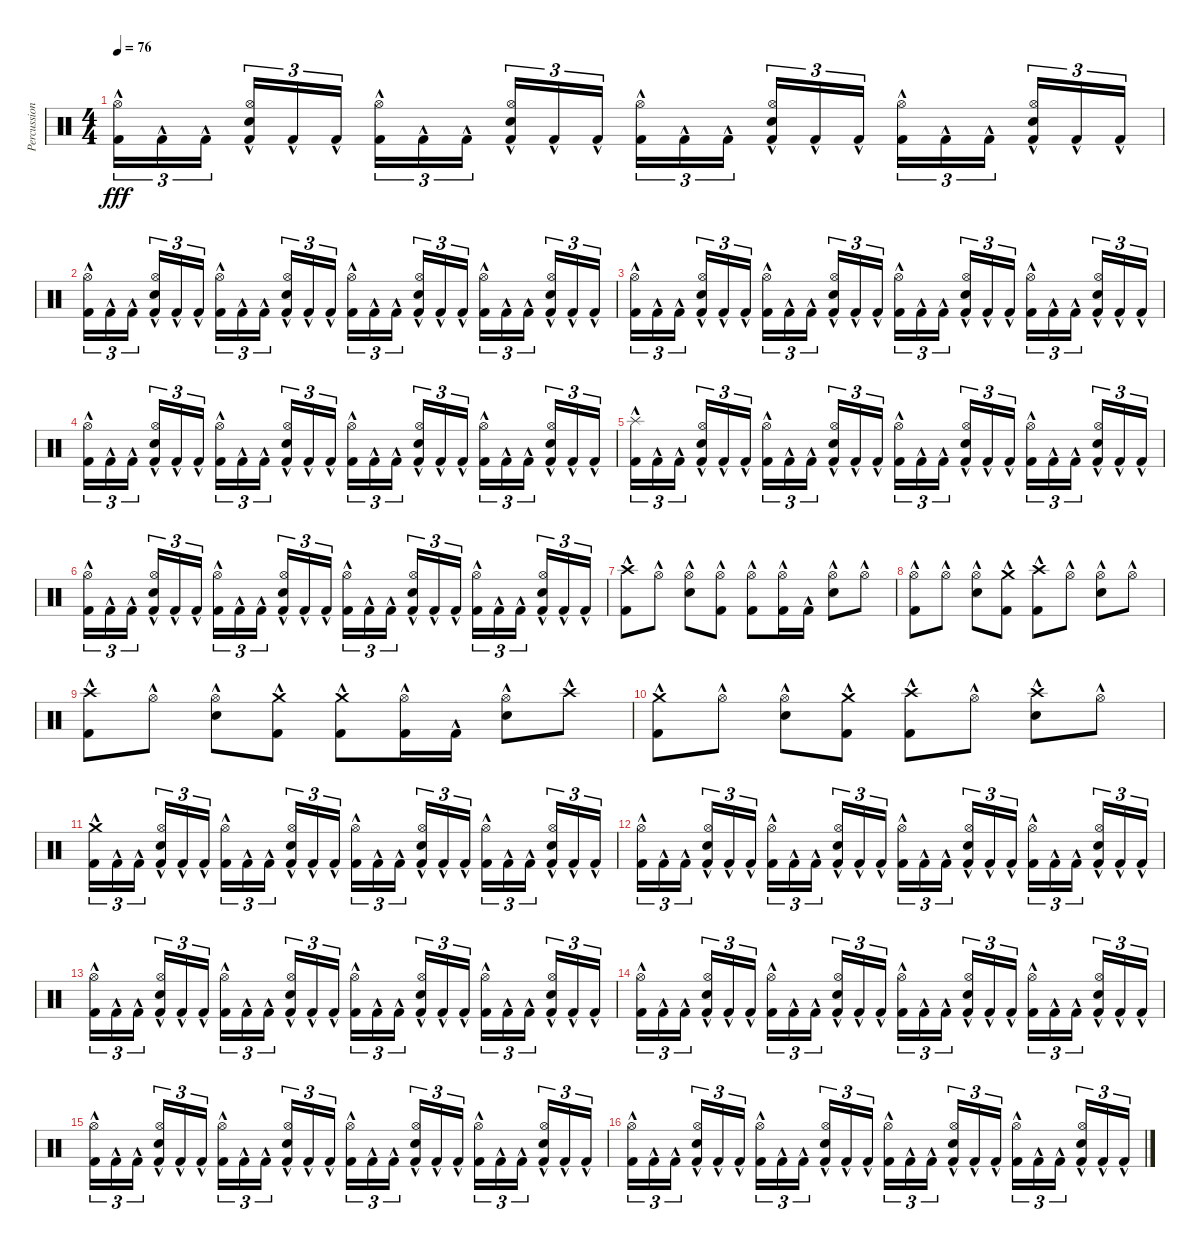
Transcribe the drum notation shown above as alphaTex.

\track ("Percussion" "Percussion") {instrument percussion}
\staff {score}
\articulation defaults
\ts (4 4)
\tempo 76
\clef neutral
\ks c
("Kick (hit) 2"{hac} "Hi-Hat (open)"{hac}).16{tu (3 2) dy fff} "Kick (hit) 2"{hac}.16{tu (3 2)} "Kick (hit) 2"{hac}.16{tu (3 2) beam splitsecondary} ("Kick (hit) 2"{hac} "Electric Snare (hit)"{hac} "Hi-Hat (open)"{hac}).16{tu (3 2)} "Kick (hit) 2"{hac}.16{tu (3 2)} "Kick (hit) 2"{hac}.16{tu (3 2)} ("Hi-Hat (open)"{hac} "Kick (hit) 2"{hac}).16{tu (3 2)} "Kick (hit) 2"{hac}.16{tu (3 2)} "Kick (hit) 2"{hac}.16{tu (3 2) beam splitsecondary} ("Kick (hit) 2"{hac} "Electric Snare (hit)"{hac} "Hi-Hat (open)"{hac}).16{tu (3 2)} "Kick (hit) 2"{hac}.16{tu (3 2)} "Kick (hit) 2"{hac}.16{tu (3 2)} ("Kick (hit) 2"{hac} "Hi-Hat (open)"{hac}).16{tu (3 2)} "Kick (hit) 2"{hac}.16{tu (3 2)} "Kick (hit) 2"{hac}.16{tu (3 2) beam splitsecondary} ("Kick (hit) 2"{hac} "Electric Snare (hit)"{hac} "Hi-Hat (open)"{hac}).16{tu (3 2)} "Kick (hit) 2"{hac}.16{tu (3 2)} "Kick (hit) 2"{hac}.16{tu (3 2)} ("Hi-Hat (open)"{hac} "Kick (hit) 2"{hac}).16{tu (3 2)} "Kick (hit) 2"{hac}.16{tu (3 2)} "Kick (hit) 2"{hac}.16{tu (3 2) beam splitsecondary} ("Kick (hit) 2"{hac} "Electric Snare (hit)"{hac} "Hi-Hat (open)"{hac}).16{tu (3 2)} "Kick (hit) 2"{hac}.16{tu (3 2)} "Kick (hit) 2"{hac}.16{tu (3 2)} |
("Kick (hit) 2"{hac} "Hi-Hat (open)"{hac}).16{tu (3 2)} "Kick (hit) 2"{hac}.16{tu (3 2)} "Kick (hit) 2"{hac}.16{tu (3 2) beam splitsecondary} ("Kick (hit) 2"{hac} "Electric Snare (hit)"{hac} "Hi-Hat (open)"{hac}).16{tu (3 2)} "Kick (hit) 2"{hac}.16{tu (3 2)} "Kick (hit) 2"{hac}.16{tu (3 2)} ("Hi-Hat (open)"{hac} "Kick (hit) 2"{hac}).16{tu (3 2)} "Kick (hit) 2"{hac}.16{tu (3 2)} "Kick (hit) 2"{hac}.16{tu (3 2) beam splitsecondary} ("Kick (hit) 2"{hac} "Electric Snare (hit)"{hac} "Hi-Hat (open)"{hac}).16{tu (3 2)} "Kick (hit) 2"{hac}.16{tu (3 2)} "Kick (hit) 2"{hac}.16{tu (3 2)} ("Kick (hit) 2"{hac} "Hi-Hat (open)"{hac}).16{tu (3 2)} "Kick (hit) 2"{hac}.16{tu (3 2)} "Kick (hit) 2"{hac}.16{tu (3 2) beam splitsecondary} ("Kick (hit) 2"{hac} "Electric Snare (hit)"{hac} "Hi-Hat (open)"{hac}).16{tu (3 2)} "Kick (hit) 2"{hac}.16{tu (3 2)} "Kick (hit) 2"{hac}.16{tu (3 2)} ("Hi-Hat (open)"{hac} "Kick (hit) 2"{hac}).16{tu (3 2)} "Kick (hit) 2"{hac}.16{tu (3 2)} "Kick (hit) 2"{hac}.16{tu (3 2) beam splitsecondary} ("Kick (hit) 2"{hac} "Electric Snare (hit)"{hac} "Hi-Hat (open)"{hac}).16{tu (3 2)} "Kick (hit) 2"{hac}.16{tu (3 2)} "Kick (hit) 2"{hac}.16{tu (3 2)} |
("Kick (hit) 2"{hac} "Hi-Hat (open)"{hac}).16{tu (3 2)} "Kick (hit) 2"{hac}.16{tu (3 2)} "Kick (hit) 2"{hac}.16{tu (3 2) beam splitsecondary} ("Kick (hit) 2"{hac} "Electric Snare (hit)"{hac} "Hi-Hat (open)"{hac}).16{tu (3 2)} "Kick (hit) 2"{hac}.16{tu (3 2)} "Kick (hit) 2"{hac}.16{tu (3 2)} ("Hi-Hat (open)"{hac} "Kick (hit) 2"{hac}).16{tu (3 2)} "Kick (hit) 2"{hac}.16{tu (3 2)} "Kick (hit) 2"{hac}.16{tu (3 2) beam splitsecondary} ("Kick (hit) 2"{hac} "Electric Snare (hit)"{hac} "Hi-Hat (open)"{hac}).16{tu (3 2)} "Kick (hit) 2"{hac}.16{tu (3 2)} "Kick (hit) 2"{hac}.16{tu (3 2)} ("Kick (hit) 2"{hac} "Hi-Hat (open)"{hac}).16{tu (3 2)} "Kick (hit) 2"{hac}.16{tu (3 2)} "Kick (hit) 2"{hac}.16{tu (3 2) beam splitsecondary} ("Kick (hit) 2"{hac} "Electric Snare (hit)"{hac} "Hi-Hat (open)"{hac}).16{tu (3 2)} "Kick (hit) 2"{hac}.16{tu (3 2)} "Kick (hit) 2"{hac}.16{tu (3 2)} ("Hi-Hat (open)"{hac} "Kick (hit) 2"{hac}).16{tu (3 2)} "Kick (hit) 2"{hac}.16{tu (3 2)} "Kick (hit) 2"{hac}.16{tu (3 2) beam splitsecondary} ("Kick (hit) 2"{hac} "Electric Snare (hit)"{hac} "Hi-Hat (open)"{hac}).16{tu (3 2)} "Kick (hit) 2"{hac}.16{tu (3 2)} "Kick (hit) 2"{hac}.16{tu (3 2)} |
("Kick (hit) 2"{hac} "Hi-Hat (open)"{hac}).16{tu (3 2)} "Kick (hit) 2"{hac}.16{tu (3 2)} "Kick (hit) 2"{hac}.16{tu (3 2) beam splitsecondary} ("Kick (hit) 2"{hac} "Electric Snare (hit)"{hac} "Hi-Hat (open)"{hac}).16{tu (3 2)} "Kick (hit) 2"{hac}.16{tu (3 2)} "Kick (hit) 2"{hac}.16{tu (3 2)} ("Hi-Hat (open)"{hac} "Kick (hit) 2"{hac}).16{tu (3 2)} "Kick (hit) 2"{hac}.16{tu (3 2)} "Kick (hit) 2"{hac}.16{tu (3 2) beam splitsecondary} ("Kick (hit) 2"{hac} "Electric Snare (hit)"{hac} "Hi-Hat (open)"{hac}).16{tu (3 2)} "Kick (hit) 2"{hac}.16{tu (3 2)} "Kick (hit) 2"{hac}.16{tu (3 2)} ("Kick (hit) 2"{hac} "Hi-Hat (open)"{hac}).16{tu (3 2)} "Kick (hit) 2"{hac}.16{tu (3 2)} "Kick (hit) 2"{hac}.16{tu (3 2) beam splitsecondary} ("Kick (hit) 2"{hac} "Electric Snare (hit)"{hac} "Hi-Hat (open)"{hac}).16{tu (3 2)} "Kick (hit) 2"{hac}.16{tu (3 2)} "Kick (hit) 2"{hac}.16{tu (3 2)} ("Hi-Hat (open)"{hac} "Kick (hit) 2"{hac}).16{tu (3 2)} "Kick (hit) 2"{hac}.16{tu (3 2)} "Kick (hit) 2"{hac}.16{tu (3 2) beam splitsecondary} ("Kick (hit) 2"{hac} "Electric Snare (hit)"{hac} "Hi-Hat (open)"{hac}).16{tu (3 2)} "Kick (hit) 2"{hac}.16{tu (3 2)} "Kick (hit) 2"{hac}.16{tu (3 2)} |
("Kick (hit) 2"{hac} "Splash (hit)"{hac}).16{tu (3 2)} "Kick (hit) 2"{hac}.16{tu (3 2)} "Kick (hit) 2"{hac}.16{tu (3 2) beam splitsecondary} ("Kick (hit) 2"{hac} "Electric Snare (hit)"{hac} "Hi-Hat (open)"{hac}).16{tu (3 2)} "Kick (hit) 2"{hac}.16{tu (3 2)} "Kick (hit) 2"{hac}.16{tu (3 2)} ("Hi-Hat (open)"{hac} "Kick (hit) 2"{hac}).16{tu (3 2)} "Kick (hit) 2"{hac}.16{tu (3 2)} "Kick (hit) 2"{hac}.16{tu (3 2) beam splitsecondary} ("Kick (hit) 2"{hac} "Electric Snare (hit)"{hac} "Hi-Hat (open)"{hac}).16{tu (3 2)} "Kick (hit) 2"{hac}.16{tu (3 2)} "Kick (hit) 2"{hac}.16{tu (3 2)} ("Kick (hit) 2"{hac} "Hi-Hat (open)"{hac}).16{tu (3 2)} "Kick (hit) 2"{hac}.16{tu (3 2)} "Kick (hit) 2"{hac}.16{tu (3 2) beam splitsecondary} ("Kick (hit) 2"{hac} "Electric Snare (hit)"{hac} "Hi-Hat (open)"{hac}).16{tu (3 2)} "Kick (hit) 2"{hac}.16{tu (3 2)} "Kick (hit) 2"{hac}.16{tu (3 2)} ("Hi-Hat (open)"{hac} "Kick (hit) 2"{hac}).16{tu (3 2)} "Kick (hit) 2"{hac}.16{tu (3 2)} "Kick (hit) 2"{hac}.16{tu (3 2) beam splitsecondary} ("Kick (hit) 2"{hac} "Electric Snare (hit)"{hac} "Hi-Hat (open)"{hac}).16{tu (3 2)} "Kick (hit) 2"{hac}.16{tu (3 2)} "Kick (hit) 2"{hac}.16{tu (3 2)} |
("Kick (hit) 2"{hac} "Hi-Hat (open)"{hac}).16{tu (3 2)} "Kick (hit) 2"{hac}.16{tu (3 2)} "Kick (hit) 2"{hac}.16{tu (3 2) beam splitsecondary} ("Kick (hit) 2"{hac} "Electric Snare (hit)"{hac} "Hi-Hat (open)"{hac}).16{tu (3 2)} "Kick (hit) 2"{hac}.16{tu (3 2)} "Kick (hit) 2"{hac}.16{tu (3 2)} ("Hi-Hat (open)"{hac} "Kick (hit) 2"{hac}).16{tu (3 2)} "Kick (hit) 2"{hac}.16{tu (3 2)} "Kick (hit) 2"{hac}.16{tu (3 2) beam splitsecondary} ("Kick (hit) 2"{hac} "Electric Snare (hit)"{hac} "Hi-Hat (open)"{hac}).16{tu (3 2)} "Kick (hit) 2"{hac}.16{tu (3 2)} "Kick (hit) 2"{hac}.16{tu (3 2)} ("Kick (hit) 2"{hac} "Hi-Hat (open)"{hac}).16{tu (3 2)} "Kick (hit) 2"{hac}.16{tu (3 2)} "Kick (hit) 2"{hac}.16{tu (3 2) beam splitsecondary} ("Kick (hit) 2"{hac} "Electric Snare (hit)"{hac} "Hi-Hat (open)"{hac}).16{tu (3 2)} "Kick (hit) 2"{hac}.16{tu (3 2)} "Kick (hit) 2"{hac}.16{tu (3 2)} ("Hi-Hat (open)"{hac} "Kick (hit) 2"{hac}).16{tu (3 2)} "Kick (hit) 2"{hac}.16{tu (3 2)} "Kick (hit) 2"{hac}.16{tu (3 2) beam splitsecondary} ("Kick (hit) 2"{hac} "Electric Snare (hit)"{hac} "Hi-Hat (open)"{hac}).16{tu (3 2)} "Kick (hit) 2"{hac}.16{tu (3 2)} "Kick (hit) 2"{hac}.16{tu (3 2)} |
("Crash high (hit)"{hac} "Kick (hit) 2"{hac}).8 "Hi-Hat (open)"{hac}.8 ("Hi-Hat (open)"{hac} "Electric Snare (hit)"{hac}).8 ("Hi-Hat (open)"{hac} "Kick (hit) 2"{hac}).8 ("Hi-Hat (open)"{hac} "Kick (hit) 2"{hac}).8 ("Hi-Hat (open)"{hac} "Kick (hit) 2"{hac}).16 "Kick (hit) 2"{hac}.16 ("Hi-Hat (open)"{hac} "Electric Snare (hit)"{hac}).8 "Hi-Hat (open)"{hac}.8 |
("Hi-Hat (open)"{hac} "Kick (hit) 2"{hac}).8 "Hi-Hat (open)"{hac}.8 ("Hi-Hat (open)"{hac} "Electric Snare (hit)"{hac}).8 ("Crash medium (hit)"{hac} "Kick (hit) 2"{hac}).8 ("Kick (hit) 2"{hac} "Crash high (hit)"{hac}).8 "Hi-Hat (open)"{hac}.8 ("Hi-Hat (open)"{hac} "Electric Snare (hit)"{hac}).8 "Hi-Hat (open)"{hac}.8 |
("Crash high (hit)"{hac} "Kick (hit) 2"{hac}).8 "Hi-Hat (open)"{hac}.8 ("Hi-Hat (open)"{hac} "Electric Snare (hit)"{hac}).8 ("Crash medium (hit)"{hac} "Kick (hit) 2"{hac}).8 ("Crash medium (hit)"{hac} "Kick (hit) 2"{hac}).8 ("Hi-Hat (open)"{hac} "Kick (hit) 2"{hac}).16 "Kick (hit) 2"{hac}.16 ("Hi-Hat (open)"{hac} "Electric Snare (hit)"{hac}).8 "Crash high (hit)"{hac}.8 |
("Crash medium (hit)"{hac} "Kick (hit) 2"{hac}).8 "Hi-Hat (open)"{hac}.8 ("Hi-Hat (open)"{hac} "Electric Snare (hit)"{hac}).8 ("Crash medium (hit)"{hac} "Kick (hit) 2"{hac}).8 ("Kick (hit) 2"{hac} "Crash high (hit)"{hac}).8 "Hi-Hat (open)"{hac}.8 ("Crash high (hit)"{hac} "Electric Snare (hit)"{hac}).8 "Hi-Hat (open)"{hac}.8 |
("Kick (hit) 2"{hac} "Crash medium (hit)"{hac}).16{tu (3 2)} "Kick (hit) 2"{hac}.16{tu (3 2)} "Kick (hit) 2"{hac}.16{tu (3 2) beam splitsecondary} ("Kick (hit) 2"{hac} "Electric Snare (hit)"{hac} "Hi-Hat (open)"{hac}).16{tu (3 2)} "Kick (hit) 2"{hac}.16{tu (3 2)} "Kick (hit) 2"{hac}.16{tu (3 2)} ("Hi-Hat (open)"{hac} "Kick (hit) 2"{hac}).16{tu (3 2)} "Kick (hit) 2"{hac}.16{tu (3 2)} "Kick (hit) 2"{hac}.16{tu (3 2) beam splitsecondary} ("Kick (hit) 2"{hac} "Electric Snare (hit)"{hac} "Hi-Hat (open)"{hac}).16{tu (3 2)} "Kick (hit) 2"{hac}.16{tu (3 2)} "Kick (hit) 2"{hac}.16{tu (3 2)} ("Kick (hit) 2"{hac} "Hi-Hat (open)"{hac}).16{tu (3 2)} "Kick (hit) 2"{hac}.16{tu (3 2)} "Kick (hit) 2"{hac}.16{tu (3 2) beam splitsecondary} ("Kick (hit) 2"{hac} "Electric Snare (hit)"{hac} "Hi-Hat (open)"{hac}).16{tu (3 2)} "Kick (hit) 2"{hac}.16{tu (3 2)} "Kick (hit) 2"{hac}.16{tu (3 2)} ("Hi-Hat (open)"{hac} "Kick (hit) 2"{hac}).16{tu (3 2)} "Kick (hit) 2"{hac}.16{tu (3 2)} "Kick (hit) 2"{hac}.16{tu (3 2) beam splitsecondary} ("Kick (hit) 2"{hac} "Electric Snare (hit)"{hac} "Hi-Hat (open)"{hac}).16{tu (3 2)} "Kick (hit) 2"{hac}.16{tu (3 2)} "Kick (hit) 2"{hac}.16{tu (3 2)} |
("Kick (hit) 2"{hac} "Hi-Hat (open)"{hac}).16{tu (3 2)} "Kick (hit) 2"{hac}.16{tu (3 2)} "Kick (hit) 2"{hac}.16{tu (3 2) beam splitsecondary} ("Kick (hit) 2"{hac} "Electric Snare (hit)"{hac} "Hi-Hat (open)"{hac}).16{tu (3 2)} "Kick (hit) 2"{hac}.16{tu (3 2)} "Kick (hit) 2"{hac}.16{tu (3 2)} ("Hi-Hat (open)"{hac} "Kick (hit) 2"{hac}).16{tu (3 2)} "Kick (hit) 2"{hac}.16{tu (3 2)} "Kick (hit) 2"{hac}.16{tu (3 2) beam splitsecondary} ("Kick (hit) 2"{hac} "Electric Snare (hit)"{hac} "Hi-Hat (open)"{hac}).16{tu (3 2)} "Kick (hit) 2"{hac}.16{tu (3 2)} "Kick (hit) 2"{hac}.16{tu (3 2)} ("Kick (hit) 2"{hac} "Hi-Hat (open)"{hac}).16{tu (3 2)} "Kick (hit) 2"{hac}.16{tu (3 2)} "Kick (hit) 2"{hac}.16{tu (3 2) beam splitsecondary} ("Kick (hit) 2"{hac} "Electric Snare (hit)"{hac} "Hi-Hat (open)"{hac}).16{tu (3 2)} "Kick (hit) 2"{hac}.16{tu (3 2)} "Kick (hit) 2"{hac}.16{tu (3 2)} ("Hi-Hat (open)"{hac} "Kick (hit) 2"{hac}).16{tu (3 2)} "Kick (hit) 2"{hac}.16{tu (3 2)} "Kick (hit) 2"{hac}.16{tu (3 2) beam splitsecondary} ("Kick (hit) 2"{hac} "Electric Snare (hit)"{hac} "Hi-Hat (open)"{hac}).16{tu (3 2)} "Kick (hit) 2"{hac}.16{tu (3 2)} "Kick (hit) 2"{hac}.16{tu (3 2)} |
("Kick (hit) 2"{hac} "Hi-Hat (open)"{hac}).16{tu (3 2)} "Kick (hit) 2"{hac}.16{tu (3 2)} "Kick (hit) 2"{hac}.16{tu (3 2) beam splitsecondary} ("Kick (hit) 2"{hac} "Electric Snare (hit)"{hac} "Hi-Hat (open)"{hac}).16{tu (3 2)} "Kick (hit) 2"{hac}.16{tu (3 2)} "Kick (hit) 2"{hac}.16{tu (3 2)} ("Hi-Hat (open)"{hac} "Kick (hit) 2"{hac}).16{tu (3 2)} "Kick (hit) 2"{hac}.16{tu (3 2)} "Kick (hit) 2"{hac}.16{tu (3 2) beam splitsecondary} ("Kick (hit) 2"{hac} "Electric Snare (hit)"{hac} "Hi-Hat (open)"{hac}).16{tu (3 2)} "Kick (hit) 2"{hac}.16{tu (3 2)} "Kick (hit) 2"{hac}.16{tu (3 2)} ("Kick (hit) 2"{hac} "Hi-Hat (open)"{hac}).16{tu (3 2)} "Kick (hit) 2"{hac}.16{tu (3 2)} "Kick (hit) 2"{hac}.16{tu (3 2) beam splitsecondary} ("Kick (hit) 2"{hac} "Electric Snare (hit)"{hac} "Hi-Hat (open)"{hac}).16{tu (3 2)} "Kick (hit) 2"{hac}.16{tu (3 2)} "Kick (hit) 2"{hac}.16{tu (3 2)} ("Hi-Hat (open)"{hac} "Kick (hit) 2"{hac}).16{tu (3 2)} "Kick (hit) 2"{hac}.16{tu (3 2)} "Kick (hit) 2"{hac}.16{tu (3 2) beam splitsecondary} ("Kick (hit) 2"{hac} "Electric Snare (hit)"{hac} "Hi-Hat (open)"{hac}).16{tu (3 2)} "Kick (hit) 2"{hac}.16{tu (3 2)} "Kick (hit) 2"{hac}.16{tu (3 2)} |
("Kick (hit) 2"{hac} "Hi-Hat (open)"{hac}).16{tu (3 2)} "Kick (hit) 2"{hac}.16{tu (3 2)} "Kick (hit) 2"{hac}.16{tu (3 2) beam splitsecondary} ("Kick (hit) 2"{hac} "Electric Snare (hit)"{hac} "Hi-Hat (open)"{hac}).16{tu (3 2)} "Kick (hit) 2"{hac}.16{tu (3 2)} "Kick (hit) 2"{hac}.16{tu (3 2)} ("Hi-Hat (open)"{hac} "Kick (hit) 2"{hac}).16{tu (3 2)} "Kick (hit) 2"{hac}.16{tu (3 2)} "Kick (hit) 2"{hac}.16{tu (3 2) beam splitsecondary} ("Kick (hit) 2"{hac} "Electric Snare (hit)"{hac} "Hi-Hat (open)"{hac}).16{tu (3 2)} "Kick (hit) 2"{hac}.16{tu (3 2)} "Kick (hit) 2"{hac}.16{tu (3 2)} ("Kick (hit) 2"{hac} "Hi-Hat (open)"{hac}).16{tu (3 2)} "Kick (hit) 2"{hac}.16{tu (3 2)} "Kick (hit) 2"{hac}.16{tu (3 2) beam splitsecondary} ("Kick (hit) 2"{hac} "Electric Snare (hit)"{hac} "Hi-Hat (open)"{hac}).16{tu (3 2)} "Kick (hit) 2"{hac}.16{tu (3 2)} "Kick (hit) 2"{hac}.16{tu (3 2)} ("Hi-Hat (open)"{hac} "Kick (hit) 2"{hac}).16{tu (3 2)} "Kick (hit) 2"{hac}.16{tu (3 2)} "Kick (hit) 2"{hac}.16{tu (3 2) beam splitsecondary} ("Kick (hit) 2"{hac} "Electric Snare (hit)"{hac} "Hi-Hat (open)"{hac}).16{tu (3 2)} "Kick (hit) 2"{hac}.16{tu (3 2)} "Kick (hit) 2"{hac}.16{tu (3 2)} |
("Kick (hit) 2"{hac} "Hi-Hat (open)"{hac}).16{tu (3 2)} "Kick (hit) 2"{hac}.16{tu (3 2)} "Kick (hit) 2"{hac}.16{tu (3 2) beam splitsecondary} ("Kick (hit) 2"{hac} "Electric Snare (hit)"{hac} "Hi-Hat (open)"{hac}).16{tu (3 2)} "Kick (hit) 2"{hac}.16{tu (3 2)} "Kick (hit) 2"{hac}.16{tu (3 2)} ("Hi-Hat (open)"{hac} "Kick (hit) 2"{hac}).16{tu (3 2)} "Kick (hit) 2"{hac}.16{tu (3 2)} "Kick (hit) 2"{hac}.16{tu (3 2) beam splitsecondary} ("Kick (hit) 2"{hac} "Electric Snare (hit)"{hac} "Hi-Hat (open)"{hac}).16{tu (3 2)} "Kick (hit) 2"{hac}.16{tu (3 2)} "Kick (hit) 2"{hac}.16{tu (3 2)} ("Kick (hit) 2"{hac} "Hi-Hat (open)"{hac}).16{tu (3 2)} "Kick (hit) 2"{hac}.16{tu (3 2)} "Kick (hit) 2"{hac}.16{tu (3 2) beam splitsecondary} ("Kick (hit) 2"{hac} "Electric Snare (hit)"{hac} "Hi-Hat (open)"{hac}).16{tu (3 2)} "Kick (hit) 2"{hac}.16{tu (3 2)} "Kick (hit) 2"{hac}.16{tu (3 2)} ("Hi-Hat (open)"{hac} "Kick (hit) 2"{hac}).16{tu (3 2)} "Kick (hit) 2"{hac}.16{tu (3 2)} "Kick (hit) 2"{hac}.16{tu (3 2) beam splitsecondary} ("Kick (hit) 2"{hac} "Electric Snare (hit)"{hac} "Hi-Hat (open)"{hac}).16{tu (3 2)} "Kick (hit) 2"{hac}.16{tu (3 2)} "Kick (hit) 2"{hac}.16{tu (3 2)} |
("Kick (hit) 2"{hac} "Hi-Hat (open)"{hac}).16{tu (3 2)} "Kick (hit) 2"{hac}.16{tu (3 2)} "Kick (hit) 2"{hac}.16{tu (3 2) beam splitsecondary} ("Kick (hit) 2"{hac} "Electric Snare (hit)"{hac} "Hi-Hat (open)"{hac}).16{tu (3 2)} "Kick (hit) 2"{hac}.16{tu (3 2)} "Kick (hit) 2"{hac}.16{tu (3 2)} ("Hi-Hat (open)"{hac} "Kick (hit) 2"{hac}).16{tu (3 2)} "Kick (hit) 2"{hac}.16{tu (3 2)} "Kick (hit) 2"{hac}.16{tu (3 2) beam splitsecondary} ("Kick (hit) 2"{hac} "Electric Snare (hit)"{hac} "Hi-Hat (open)"{hac}).16{tu (3 2)} "Kick (hit) 2"{hac}.16{tu (3 2)} "Kick (hit) 2"{hac}.16{tu (3 2)} ("Kick (hit) 2"{hac} "Hi-Hat (open)"{hac}).16{tu (3 2)} "Kick (hit) 2"{hac}.16{tu (3 2)} "Kick (hit) 2"{hac}.16{tu (3 2) beam splitsecondary} ("Kick (hit) 2"{hac} "Electric Snare (hit)"{hac} "Hi-Hat (open)"{hac}).16{tu (3 2)} "Kick (hit) 2"{hac}.16{tu (3 2)} "Kick (hit) 2"{hac}.16{tu (3 2)} ("Hi-Hat (open)"{hac} "Kick (hit) 2"{hac}).16{tu (3 2)} "Kick (hit) 2"{hac}.16{tu (3 2)} "Kick (hit) 2"{hac}.16{tu (3 2) beam splitsecondary} ("Kick (hit) 2"{hac} "Electric Snare (hit)"{hac} "Hi-Hat (open)"{hac}).16{tu (3 2)} "Kick (hit) 2"{hac}.16{tu (3 2)} "Kick (hit) 2"{hac}.16{tu (3 2)}
